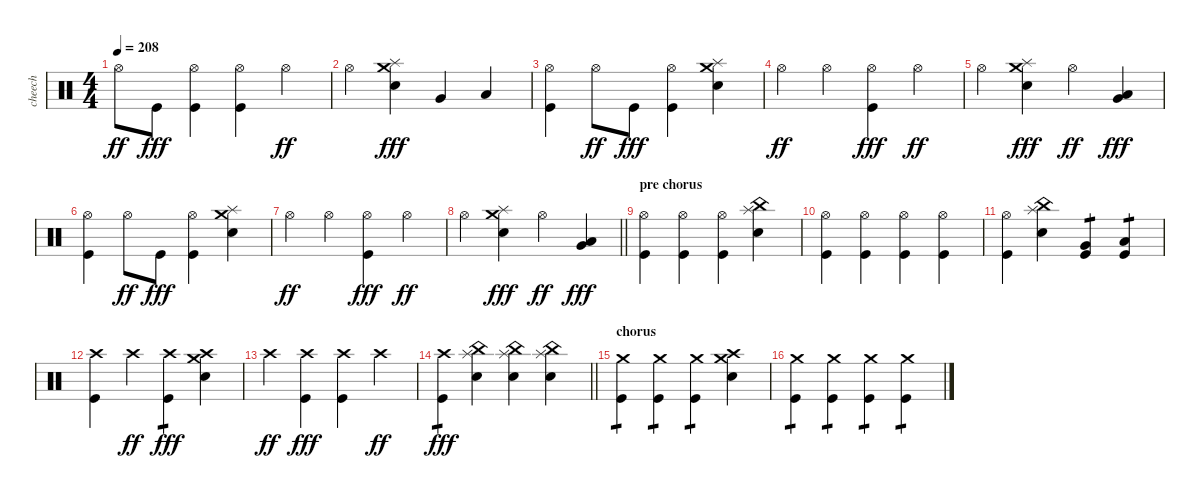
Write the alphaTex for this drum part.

\track ("cheech" "cheech") {instrument percussion}
\staff {score}
\articulation defaults
\ts (4 4)
\tempo 208
\clef neutral
\ks c "Hi-Hat (open)".8{dy ff} "Kick (hit)".8{dy fff}
("Hi-Hat (open)" "Kick (hit)").4 ("Hi-Hat (open)" "Kick (hit)").4 "Hi-Hat (open)".4{dy ff} |
"Hi-Hat (open)".4 ("Crash medium (hit)" "Splash (hit)" "Electric Snare (hit)").4{dy fff} "Very Low Tom (hit)".4 "Low Floor Tom (hit)".4 |
("Hi-Hat (open)" "Kick (hit)").4 "Hi-Hat (open)".8{dy ff} "Kick (hit)".8{dy fff} ("Hi-Hat (open)" "Kick (hit)").4 ("Crash medium (hit)" "Splash (hit)" "Electric Snare (hit)").4 |
"Hi-Hat (open)".4{dy ff} "Hi-Hat (open)".4 ("Hi-Hat (open)" "Kick (hit)").4{dy fff} "Hi-Hat (open)".4{dy ff} |
"Hi-Hat (open)".4 ("Crash medium (hit)" "Splash (hit)" "Electric Snare (hit)").4{dy fff} "Hi-Hat (open)".4{dy ff} ("Very Low Tom (hit)" "Low Floor Tom (hit)").4{dy fff} |
("Hi-Hat (open)" "Kick (hit)").4 "Hi-Hat (open)".8{dy ff} "Kick (hit)".8{dy fff} ("Hi-Hat (open)" "Kick (hit)").4 ("Crash medium (hit)" "Splash (hit)" "Electric Snare (hit)").4 |
"Hi-Hat (open)".4{dy ff} "Hi-Hat (open)".4 ("Hi-Hat (open)" "Kick (hit)").4{dy fff} "Hi-Hat (open)".4{dy ff} |
\barLineRight lightlight "Hi-Hat (open)".4
("Crash medium (hit)" "Splash (hit)" "Electric Snare (hit)").4{dy fff} "Hi-Hat (open)".4{dy ff} ("Very Low Tom (hit)" "Low Floor Tom (hit)").4{dy fff} |
\section ("" "pre chorus")
("Hi-Hat (open)" "Kick (hit)").4 ("Hi-Hat (open)" "Kick (hit)").4 ("Hi-Hat (open)" "Kick (hit)").4 ("Splash (hit)" "China (hit)" "Electric Snare (hit)").4 |
("Hi-Hat (open)" "Kick (hit)").4 ("Hi-Hat (open)" "Kick (hit)").4 ("Hi-Hat (open)" "Kick (hit)").4 ("Hi-Hat (open)" "Kick (hit)").4 |
("Hi-Hat (open)" "Kick (hit)").4 ("Splash (hit)" "China (hit)" "Electric Snare (hit)").4 ("Very Low Tom (hit)" "Kick (hit)").4{tp 1} ("Low Floor Tom (hit)" "Kick (hit)").4{tp 1} |
("Crash high (hit)" "Kick (hit)").4 "Crash high (hit)".4{dy ff} ("Crash high (hit)" "Kick (hit)").4{tp 1 dy fff} ("Crash medium (hit)" "Crash high (hit)" "Electric Snare (hit)").4 |
"Crash high (hit)".4{dy ff} ("Crash high (hit)" "Kick (hit)").4{dy fff} ("Crash high (hit)" "Kick (hit)").4 "Crash high (hit)".4{dy ff} |
\barLineRight lightlight
("Crash high (hit)" "Kick (hit)").4{tp 1 dy fff} ("Splash (hit)" "China (hit)" "Electric Snare (hit)").4 ("Splash (hit)" "China (hit)" "Electric Snare (hit)").4 ("Splash (hit)" "China (hit)" "Electric Snare (hit)").4 |
\section ("" "chorus")
("Crash medium (hit)" "Kick (hit)").4{tp 1} ("Crash medium (hit)" "Kick (hit)").4{tp 1} ("Crash medium (hit)" "Kick (hit)").4{tp 1} ("Crash medium (hit)" "Crash high (hit)" "Electric Snare (hit)").4 |
("Crash medium (hit)" "Kick (hit)").4{tp 1} ("Crash medium (hit)" "Kick (hit)").4{tp 1} ("Crash medium (hit)" "Kick (hit)").4{tp 1} ("Crash medium (hit)" "Kick (hit)").4{tp 1}
